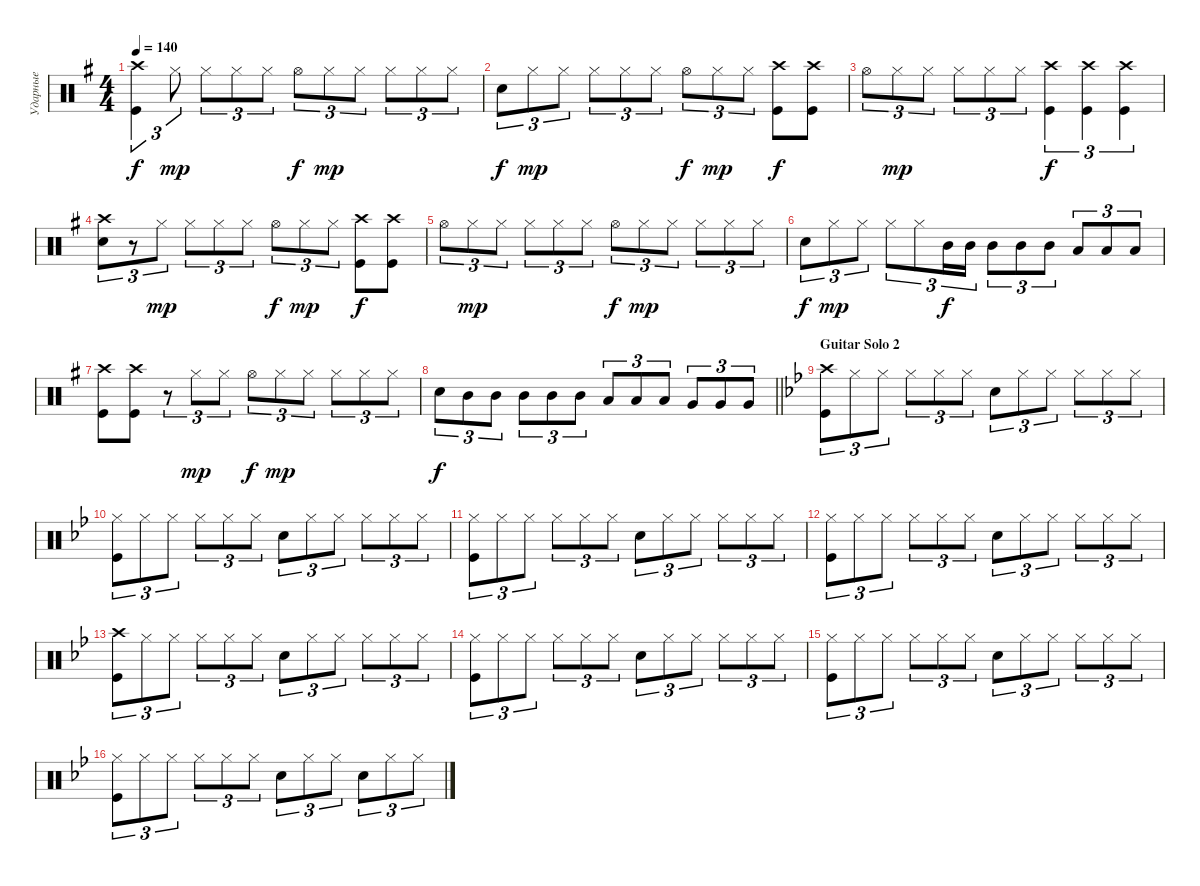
\track ("Ударные" "Ударные") {instrument percussion}
\staff {score}
\articulation defaults
\ts (4 4)
\tempo 140
\clef neutral
\ks eminor
("Kick (hit)" "Crash high (hit)").4{tu (3 2) dy f} "Hi-Hat (closed)".8{tu (3 2) dy mp} "Hi-Hat (closed)".8{tu (3 2)} "Hi-Hat (closed)".8{tu (3 2)} "Hi-Hat (closed)".8{tu (3 2)} "Hi-Hat (open)".8{tu (3 2) dy f} "Hi-Hat (closed)".8{tu (3 2) dy mp} "Hi-Hat (closed)".8{tu (3 2)} "Hi-Hat (closed)".8{tu (3 2)} "Hi-Hat (closed)".8{tu (3 2)} "Hi-Hat (closed)".8{tu (3 2)} |
"Snare (hit) 2".8{tu (3 2) dy f} "Hi-Hat (closed)".8{tu (3 2) dy mp} "Hi-Hat (closed)".8{tu (3 2)} "Hi-Hat (closed)".8{tu (3 2)} "Hi-Hat (closed)".8{tu (3 2)} "Hi-Hat (closed)".8{tu (3 2)} "Hi-Hat (open)".8{tu (3 2) dy f} "Hi-Hat (closed)".8{tu (3 2) dy mp} "Hi-Hat (closed)".8{tu (3 2)} ("Kick (hit)" "Crash high (hit)").8{dy f} ("Kick (hit)" "Crash high (hit)").8 |
"Hi-Hat (open)".8{tu (3 2)} "Hi-Hat (closed)".8{tu (3 2) dy mp} "Hi-Hat (closed)".8{tu (3 2)} "Hi-Hat (closed)".8{tu (3 2)} "Hi-Hat (closed)".8{tu (3 2)} "Hi-Hat (closed)".8{tu (3 2)} ("Crash high (hit)" "Kick (hit)").4{tu (3 2) dy f} ("Kick (hit)" "Crash high (hit)").4{tu (3 2)} ("Kick (hit)" "Crash high (hit)").4{tu (3 2)} |
("Crash high (hit)" "Snare (hit) 2").8{tu (3 2)} r.8{tu (3 2)} "Hi-Hat (closed)".8{tu (3 2) dy mp} "Hi-Hat (closed)".8{tu (3 2)} "Hi-Hat (closed)".8{tu (3 2)} "Hi-Hat (closed)".8{tu (3 2)} "Hi-Hat (open)".8{tu (3 2) dy f} "Hi-Hat (closed)".8{tu (3 2) dy mp} "Hi-Hat (closed)".8{tu (3 2)} ("Kick (hit)" "Crash high (hit)").8{dy f} ("Kick (hit)" "Crash high (hit)").8 |
"Hi-Hat (open)".8{tu (3 2)} "Hi-Hat (closed)".8{tu (3 2) dy mp} "Hi-Hat (closed)".8{tu (3 2)} "Hi-Hat (closed)".8{tu (3 2)} "Hi-Hat (closed)".8{tu (3 2)} "Hi-Hat (closed)".8{tu (3 2)} "Hi-Hat (open)".8{tu (3 2) dy f} "Hi-Hat (closed)".8{tu (3 2) dy mp} "Hi-Hat (closed)".8{tu (3 2)} "Hi-Hat (closed)".8{tu (3 2)} "Hi-Hat (closed)".8{tu (3 2)} "Hi-Hat (closed)".8{tu (3 2)} |
"Snare (hit) 2".8{tu (3 2) dy f} "Hi-Hat (closed)".8{tu (3 2) dy mp} "Hi-Hat (closed)".8{tu (3 2)} "Hi-Hat (closed)".8{tu (3 2)} "Hi-Hat (closed)".8{tu (3 2)} "Mid Tom (hit)".16{tu (3 2) dy f} "Mid Tom (hit)".16{tu (3 2)} "Mid Tom (hit)".8{tu (3 2)} "Mid Tom (hit)".8{tu (3 2)} "Mid Tom (hit)".8{tu (3 2)} "Low Tom (hit)".8{tu (3 2)} "Low Tom (hit)".8{tu (3 2)} "Low Tom (hit)".8{tu (3 2)} |
("Kick (hit)" "Crash high (hit)").8 ("Crash high (hit)" "Kick (hit)").8 r.8{tu (3 2)} "Hi-Hat (closed)".8{tu (3 2) dy mp} "Hi-Hat (closed)".8{tu (3 2)} "Hi-Hat (open)".8{tu (3 2) dy f} "Hi-Hat (closed)".8{tu (3 2) dy mp} "Hi-Hat (closed)".8{tu (3 2)} "Hi-Hat (closed)".8{tu (3 2)} "Hi-Hat (closed)".8{tu (3 2)} "Hi-Hat (closed)".8{tu (3 2)} |
\barLineRight lightlight "Snare (hit) 2".8{tu (3 2) dy f} "Mid Tom (hit)".8{tu (3 2)} "Mid Tom (hit)".8{tu (3 2)} "Mid Tom (hit)".8{tu (3 2)} "Mid Tom (hit)".8{tu (3 2)} "Mid Tom (hit)".8{tu (3 2)} "Low Tom (hit)".8{tu (3 2)} "Low Tom (hit)".8{tu (3 2)} "Low Tom (hit)".8{tu (3 2)} "Very Low Tom (hit)".8{tu (3 2)} "Very Low Tom (hit)".8{tu (3 2)} "Very Low Tom (hit)".8{tu (3 2)}
|
\section ("" "Guitar Solo 2")
\ks gminor
("Crash high (hit)" "Kick (hit)").8{tu (3 2)} "Hi-Hat (closed)".8{tu (3 2)} "Hi-Hat (closed)".8{tu (3 2)} "Hi-Hat (closed)".8{tu (3 2)} "Hi-Hat (closed)".8{tu (3 2)} "Hi-Hat (closed)".8{tu (3 2)} "Snare (hit) 2".8{tu (3 2)} "Hi-Hat (closed)".8{tu (3 2)} "Hi-Hat (closed)".8{tu (3 2)} "Hi-Hat (closed)".8{tu (3 2)} "Hi-Hat (closed)".8{tu (3 2)} "Hi-Hat (closed)".8{tu (3 2)} |
("Hi-Hat (closed)" "Kick (hit)").8{tu (3 2)} "Hi-Hat (closed)".8{tu (3 2)} "Hi-Hat (closed)".8{tu (3 2)} "Hi-Hat (closed)".8{tu (3 2)} "Hi-Hat (closed)".8{tu (3 2)} "Hi-Hat (closed)".8{tu (3 2)} "Snare (hit) 2".8{tu (3 2)} "Hi-Hat (closed)".8{tu (3 2)} "Hi-Hat (closed)".8{tu (3 2)} "Hi-Hat (closed)".8{tu (3 2)} "Hi-Hat (closed)".8{tu (3 2)} "Hi-Hat (closed)".8{tu (3 2)} |
("Hi-Hat (closed)" "Kick (hit)").8{tu (3 2)} "Hi-Hat (closed)".8{tu (3 2)} "Hi-Hat (closed)".8{tu (3 2)} "Hi-Hat (closed)".8{tu (3 2)} "Hi-Hat (closed)".8{tu (3 2)} "Hi-Hat (closed)".8{tu (3 2)} "Snare (hit) 2".8{tu (3 2)} "Hi-Hat (closed)".8{tu (3 2)} "Hi-Hat (closed)".8{tu (3 2)} "Hi-Hat (closed)".8{tu (3 2)} "Hi-Hat (closed)".8{tu (3 2)} "Hi-Hat (closed)".8{tu (3 2)} |
("Hi-Hat (closed)" "Kick (hit)").8{tu (3 2)} "Hi-Hat (closed)".8{tu (3 2)} "Hi-Hat (closed)".8{tu (3 2)} "Hi-Hat (closed)".8{tu (3 2)} "Hi-Hat (closed)".8{tu (3 2)} "Hi-Hat (closed)".8{tu (3 2)} "Snare (hit) 2".8{tu (3 2)} "Hi-Hat (closed)".8{tu (3 2)} "Hi-Hat (closed)".8{tu (3 2)} "Hi-Hat (closed)".8{tu (3 2)} "Hi-Hat (closed)".8{tu (3 2)} "Hi-Hat (closed)".8{tu (3 2)} |
("Crash high (hit)" "Kick (hit)").8{tu (3 2)} "Hi-Hat (closed)".8{tu (3 2)} "Hi-Hat (closed)".8{tu (3 2)} "Hi-Hat (closed)".8{tu (3 2)} "Hi-Hat (closed)".8{tu (3 2)} "Hi-Hat (closed)".8{tu (3 2)} "Snare (hit) 2".8{tu (3 2)} "Hi-Hat (closed)".8{tu (3 2)} "Hi-Hat (closed)".8{tu (3 2)} "Hi-Hat (closed)".8{tu (3 2)} "Hi-Hat (closed)".8{tu (3 2)} "Hi-Hat (closed)".8{tu (3 2)} |
("Hi-Hat (closed)" "Kick (hit)").8{tu (3 2)} "Hi-Hat (closed)".8{tu (3 2)} "Hi-Hat (closed)".8{tu (3 2)} "Hi-Hat (closed)".8{tu (3 2)} "Hi-Hat (closed)".8{tu (3 2)} "Hi-Hat (closed)".8{tu (3 2)} "Snare (hit) 2".8{tu (3 2)} "Hi-Hat (closed)".8{tu (3 2)} "Hi-Hat (closed)".8{tu (3 2)} "Hi-Hat (closed)".8{tu (3 2)} "Hi-Hat (closed)".8{tu (3 2)} "Hi-Hat (closed)".8{tu (3 2)} |
("Hi-Hat (closed)" "Kick (hit)").8{tu (3 2)} "Hi-Hat (closed)".8{tu (3 2)} "Hi-Hat (closed)".8{tu (3 2)} "Hi-Hat (closed)".8{tu (3 2)} "Hi-Hat (closed)".8{tu (3 2)} "Hi-Hat (closed)".8{tu (3 2)} "Snare (hit) 2".8{tu (3 2)} "Hi-Hat (closed)".8{tu (3 2)} "Hi-Hat (closed)".8{tu (3 2)} "Hi-Hat (closed)".8{tu (3 2)} "Hi-Hat (closed)".8{tu (3 2)} "Hi-Hat (closed)".8{tu (3 2)} |
("Hi-Hat (closed)" "Kick (hit)").8{tu (3 2)} "Hi-Hat (closed)".8{tu (3 2)} "Hi-Hat (closed)".8{tu (3 2)} "Hi-Hat (closed)".8{tu (3 2)} "Hi-Hat (closed)".8{tu (3 2)} "Hi-Hat (closed)".8{tu (3 2)} "Snare (hit) 2".8{tu (3 2)} "Hi-Hat (closed)".8{tu (3 2)} "Hi-Hat (closed)".8{tu (3 2)} "Snare (hit) 2".8{tu (3 2)} "Hi-Hat (closed)".8{tu (3 2)} "Hi-Hat (closed)".8{tu (3 2)}
